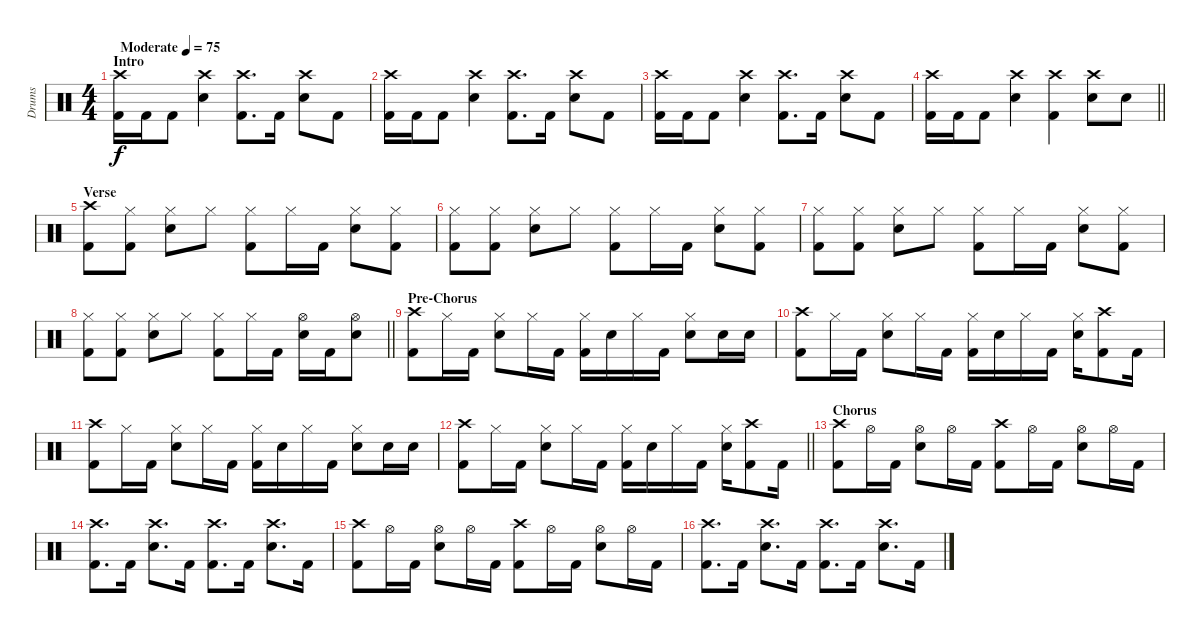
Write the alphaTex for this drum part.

\track ("Drums" "Drums") {instrument percussion}
\staff {score}
\articulation defaults
\ts (4 4)
\section ("" "Intro")
\tempo (75 "Moderate")
\clef neutral
\ks c
("Crash high (hit)" "Kick (hit) 2").16{dy f} "Kick (hit) 2".16 "Kick (hit) 2".8 ("Crash high (hit)" "Snare (hit) 2").4 ("Crash high (hit)" "Kick (hit) 2").8{d} "Kick (hit) 2".16 ("Crash high (hit)" "Snare (hit) 2").8 "Kick (hit) 2".8 |
("Crash high (hit)" "Kick (hit) 2").16 "Kick (hit) 2".16 "Kick (hit) 2".8 ("Crash high (hit)" "Snare (hit) 2").4 ("Crash high (hit)" "Kick (hit) 2").8{d} "Kick (hit) 2".16 ("Crash high (hit)" "Snare (hit) 2").8 "Kick (hit) 2".8 |
("Crash high (hit)" "Kick (hit) 2").16 "Kick (hit) 2".16 "Kick (hit) 2".8 ("Crash high (hit)" "Snare (hit) 2").4 ("Crash high (hit)" "Kick (hit) 2").8{d} "Kick (hit) 2".16 ("Crash high (hit)" "Snare (hit) 2").8 "Kick (hit) 2".8 |
\barLineRight lightlight
("Crash high (hit)" "Kick (hit) 2").16 "Kick (hit) 2".16 "Kick (hit) 2".8 ("Crash high (hit)" "Snare (hit) 2").4 ("Crash high (hit)" "Kick (hit) 2").4 ("Crash high (hit)" "Snare (hit) 2").8 "Snare (hit) 2".8 |
\section ("" "Verse")
("Crash high (hit)" "Kick (hit) 2").8 ("Hi-Hat (closed)" "Kick (hit) 2").8 ("Hi-Hat (closed)" "Snare (hit) 2").8 "Hi-Hat (closed)".8 ("Hi-Hat (closed)" "Kick (hit) 2").8 "Hi-Hat (closed)".16 "Kick (hit) 2".16 ("Hi-Hat (closed)" "Snare (hit) 2").8 ("Hi-Hat (closed)" "Kick (hit) 2").8 |
("Hi-Hat (closed)" "Kick (hit) 2").8 ("Hi-Hat (closed)" "Kick (hit) 2").8 ("Hi-Hat (closed)" "Snare (hit) 2").8 "Hi-Hat (closed)".8 ("Hi-Hat (closed)" "Kick (hit) 2").8 "Hi-Hat (closed)".16 "Kick (hit) 2".16 ("Hi-Hat (closed)" "Snare (hit) 2").8 ("Hi-Hat (closed)" "Kick (hit) 2").8 |
("Hi-Hat (closed)" "Kick (hit) 2").8 ("Hi-Hat (closed)" "Kick (hit) 2").8 ("Hi-Hat (closed)" "Snare (hit) 2").8 "Hi-Hat (closed)".8 ("Hi-Hat (closed)" "Kick (hit) 2").8 "Hi-Hat (closed)".16 "Kick (hit) 2".16 ("Hi-Hat (closed)" "Snare (hit) 2").8 ("Hi-Hat (closed)" "Kick (hit) 2").8 |
\barLineRight lightlight
("Hi-Hat (closed)" "Kick (hit) 2").8 ("Hi-Hat (closed)" "Kick (hit) 2").8 ("Hi-Hat (closed)" "Snare (hit) 2").8 "Hi-Hat (closed)".8 ("Hi-Hat (closed)" "Kick (hit) 2").8 "Hi-Hat (closed)".16 "Kick (hit) 2".16 ("Hi-Hat (open)" "Snare (hit) 2").16 "Kick (hit) 2".16 ("Hi-Hat (open)" "Snare (hit) 2").8 |
\section ("" "Pre-Chorus")
("Crash high (hit)" "Kick (hit) 2").8 "Hi-Hat (closed)".16 "Kick (hit) 2".16 ("Hi-Hat (closed)" "Snare (hit) 2").8 "Hi-Hat (closed)".16 "Kick (hit) 2".16 ("Hi-Hat (closed)" "Kick (hit) 2").16 "Snare (hit) 2".16 "Hi-Hat (closed)".16 "Kick (hit) 2".16 ("Hi-Hat (closed)" "Snare (hit) 2").8 "Snare (hit) 2".16 "Snare (hit) 2".16 |
("Crash high (hit)" "Kick (hit) 2").8 "Hi-Hat (closed)".16 "Kick (hit) 2".16 ("Hi-Hat (closed)" "Snare (hit) 2").8 "Hi-Hat (closed)".16 "Kick (hit) 2".16 ("Hi-Hat (closed)" "Kick (hit) 2").16 "Snare (hit) 2".16 "Hi-Hat (closed)".16 "Kick (hit) 2".16 ("Hi-Hat (closed)" "Snare (hit) 2").16 ("Crash high (hit)" "Kick (hit) 2").8 "Kick (hit) 2".16 |
("Crash high (hit)" "Kick (hit) 2").8 "Hi-Hat (closed)".16 "Kick (hit) 2".16 ("Hi-Hat (closed)" "Snare (hit) 2").8 "Hi-Hat (closed)".16 "Kick (hit) 2".16 ("Hi-Hat (closed)" "Kick (hit) 2").16 "Snare (hit) 2".16 "Hi-Hat (closed)".16 "Kick (hit) 2".16 ("Hi-Hat (closed)" "Snare (hit) 2").8 "Snare (hit) 2".16 "Snare (hit) 2".16 |
\barLineRight lightlight
("Crash high (hit)" "Kick (hit) 2").8 "Hi-Hat (closed)".16 "Kick (hit) 2".16 ("Hi-Hat (closed)" "Snare (hit) 2").8 "Hi-Hat (closed)".16 "Kick (hit) 2".16 ("Hi-Hat (closed)" "Kick (hit) 2").16 "Snare (hit) 2".16 "Hi-Hat (closed)".16 "Kick (hit) 2".16 ("Hi-Hat (closed)" "Snare (hit) 2").16 ("Crash high (hit)" "Kick (hit) 2").8 "Kick (hit) 2".16 |
\section ("" "Chorus")
("Crash high (hit)" "Kick (hit) 2").8 "Hi-Hat (open)".16 "Kick (hit) 2".16 ("Hi-Hat (open)" "Snare (hit) 2").8 "Hi-Hat (open)".16 "Kick (hit) 2".16 ("Crash high (hit)" "Kick (hit) 2").8 "Hi-Hat (open)".16 "Kick (hit) 2".16 ("Hi-Hat (open)" "Snare (hit) 2").8 "Hi-Hat (open)".16 "Kick (hit) 2".16 |
("Crash high (hit)" "Kick (hit) 2").8{d} "Kick (hit) 2".16 ("Crash high (hit)" "Snare (hit) 2").8{d} "Kick (hit) 2".16 ("Crash high (hit)" "Kick (hit) 2").8{d} "Kick (hit) 2".16 ("Crash high (hit)" "Snare (hit) 2").8{d} "Kick (hit) 2".16 |
("Crash high (hit)" "Kick (hit) 2").8 "Hi-Hat (open)".16 "Kick (hit) 2".16 ("Hi-Hat (open)" "Snare (hit) 2").8 "Hi-Hat (open)".16 "Kick (hit) 2".16 ("Crash high (hit)" "Kick (hit) 2").8 "Hi-Hat (open)".16 "Kick (hit) 2".16 ("Hi-Hat (open)" "Snare (hit) 2").8 "Hi-Hat (open)".16 "Kick (hit) 2".16 |
("Crash high (hit)" "Kick (hit) 2").8{d} "Kick (hit) 2".16 ("Crash high (hit)" "Snare (hit) 2").8{d} "Kick (hit) 2".16 ("Crash high (hit)" "Kick (hit) 2").8{d} "Kick (hit) 2".16 ("Crash high (hit)" "Snare (hit) 2").8{d} "Kick (hit) 2".16
